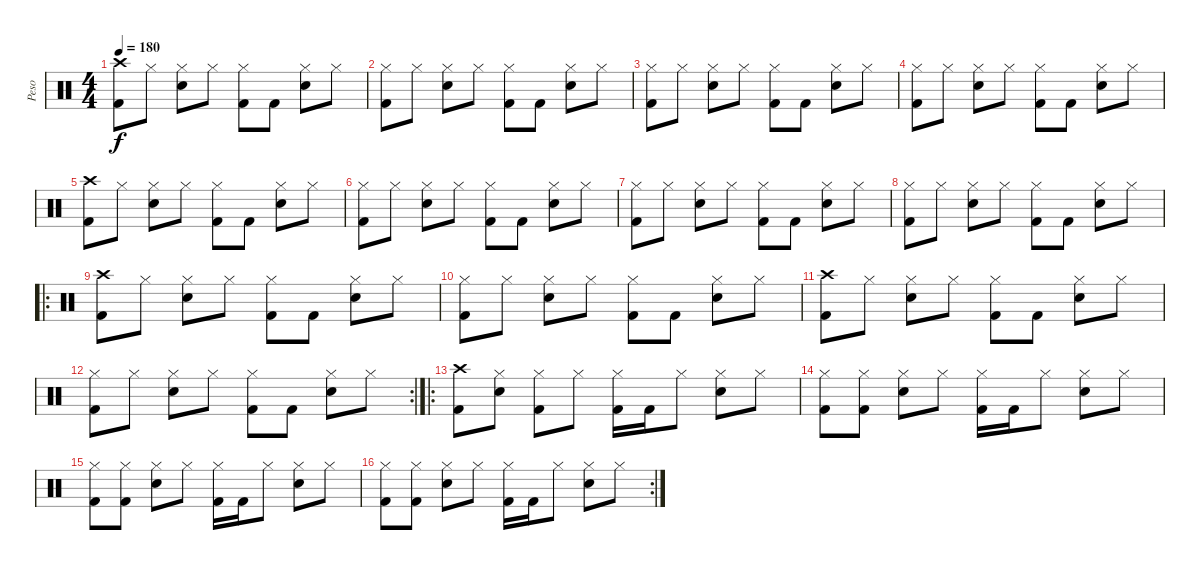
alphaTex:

\track ("Peso" "Peso") {instrument percussion}
\staff {score}
\articulation defaults
\ts (4 4)
\tempo 180
\clef neutral
\ks c
("Crash high (hit)" "Kick (hit) 2").8{dy f} "Hi-Hat (closed)"{x}.8 ("Hi-Hat (closed)" "Snare (hit) 2").8 "Hi-Hat (closed)"{x}.8 ("Hi-Hat (closed)" "Kick (hit) 2").8 "Kick (hit) 2".8 ("Hi-Hat (closed)"{x} "Snare (hit) 2").8 "Hi-Hat (closed)".8 |
("Hi-Hat (closed)"{x} "Kick (hit) 2").8 "Hi-Hat (closed)".8 ("Hi-Hat (closed)"{x} "Snare (hit) 2").8 "Hi-Hat (closed)".8 ("Hi-Hat (closed)"{x} "Kick (hit) 2").8 "Kick (hit) 2".8 ("Hi-Hat (closed)"{x} "Snare (hit) 2").8 "Hi-Hat (closed)".8 |
("Hi-Hat (closed)" "Kick (hit) 2").8 "Hi-Hat (closed)"{x}.8 ("Hi-Hat (closed)" "Snare (hit) 2").8 "Hi-Hat (closed)"{x}.8 ("Hi-Hat (closed)" "Kick (hit) 2").8 "Kick (hit) 2".8 ("Hi-Hat (closed)"{x} "Snare (hit) 2").8 "Hi-Hat (closed)".8 |
("Hi-Hat (closed)"{x} "Kick (hit) 2").8 "Hi-Hat (closed)".8 ("Hi-Hat (closed)"{x} "Snare (hit) 2").8 "Hi-Hat (closed)".8 ("Hi-Hat (closed)"{x} "Kick (hit) 2").8 "Kick (hit) 2".8 ("Hi-Hat (closed)"{x} "Snare (hit) 2").8 "Hi-Hat (closed)".8 |
("Crash high (hit)" "Kick (hit) 2").8 "Hi-Hat (closed)"{x}.8 ("Hi-Hat (closed)" "Snare (hit) 2").8 "Hi-Hat (closed)"{x}.8 ("Hi-Hat (closed)" "Kick (hit) 2").8 "Kick (hit) 2".8 ("Hi-Hat (closed)"{x} "Snare (hit) 2").8 "Hi-Hat (closed)".8 |
("Hi-Hat (closed)"{x} "Kick (hit) 2").8 "Hi-Hat (closed)".8 ("Hi-Hat (closed)"{x} "Snare (hit) 2").8 "Hi-Hat (closed)".8 ("Hi-Hat (closed)"{x} "Kick (hit) 2").8 "Kick (hit) 2".8 ("Hi-Hat (closed)"{x} "Snare (hit) 2").8 "Hi-Hat (closed)".8 |
("Hi-Hat (closed)" "Kick (hit) 2").8 "Hi-Hat (closed)"{x}.8 ("Hi-Hat (closed)" "Snare (hit) 2").8 "Hi-Hat (closed)"{x}.8 ("Hi-Hat (closed)" "Kick (hit) 2").8 "Kick (hit) 2".8 ("Hi-Hat (closed)"{x} "Snare (hit) 2").8 "Hi-Hat (closed)".8 |
("Hi-Hat (closed)"{x} "Kick (hit) 2").8 "Hi-Hat (closed)".8 ("Hi-Hat (closed)"{x} "Snare (hit) 2").8 "Hi-Hat (closed)".8 ("Hi-Hat (closed)"{x} "Kick (hit) 2").8 "Kick (hit) 2".8 ("Hi-Hat (closed)"{x} "Snare (hit) 2").8 "Hi-Hat (closed)".8 |
\ro
("Crash high (hit)" "Kick (hit) 2").8 "Hi-Hat (closed)"{x}.8 ("Hi-Hat (closed)" "Snare (hit) 2").8 "Hi-Hat (closed)"{x}.8 ("Hi-Hat (closed)" "Kick (hit) 2").8 "Kick (hit) 2".8 ("Hi-Hat (closed)"{x} "Snare (hit) 2").8 "Hi-Hat (closed)".8 |
("Hi-Hat (closed)"{x} "Kick (hit) 2").8 "Hi-Hat (closed)".8 ("Hi-Hat (closed)"{x} "Snare (hit) 2").8 "Hi-Hat (closed)".8 ("Hi-Hat (closed)"{x} "Kick (hit) 2").8 "Kick (hit) 2".8 ("Hi-Hat (closed)"{x} "Snare (hit) 2").8 "Hi-Hat (closed)".8 |
("Crash high (hit)" "Kick (hit) 2").8 "Hi-Hat (closed)"{x}.8 ("Hi-Hat (closed)" "Snare (hit) 2").8 "Hi-Hat (closed)"{x}.8 ("Hi-Hat (closed)" "Kick (hit) 2").8 "Kick (hit) 2".8 ("Hi-Hat (closed)"{x} "Snare (hit) 2").8 "Hi-Hat (closed)".8 |
\rc 2
("Hi-Hat (closed)"{x} "Kick (hit) 2").8 "Hi-Hat (closed)".8 ("Hi-Hat (closed)"{x} "Snare (hit) 2").8 "Hi-Hat (closed)".8 ("Hi-Hat (closed)"{x} "Kick (hit) 2").8 "Kick (hit) 2".8 ("Hi-Hat (closed)"{x} "Snare (hit) 2").8 "Hi-Hat (closed)".8 |
\ro
("Crash high (hit)" "Kick (hit) 2").8 ("Hi-Hat (closed)" "Snare (hit) 2").8 ("Hi-Hat (closed)" "Kick (hit) 2").8 "Hi-Hat (closed)".8 ("Hi-Hat (closed)" "Kick (hit) 2").16 "Kick (hit) 2".16 "Hi-Hat (closed)".8 ("Hi-Hat (closed)" "Snare (hit) 2").8 "Hi-Hat (closed)".8 |
("Hi-Hat (closed)" "Kick (hit) 2").8 ("Hi-Hat (closed)" "Kick (hit) 2").8 ("Hi-Hat (closed)" "Snare (hit) 2").8 "Hi-Hat (closed)".8 ("Hi-Hat (closed)" "Kick (hit) 2").16 "Kick (hit) 2".16 "Hi-Hat (closed)".8 ("Hi-Hat (closed)" "Snare (hit) 2").8 "Hi-Hat (closed)".8 |
("Hi-Hat (closed)" "Kick (hit) 2").8 ("Hi-Hat (closed)" "Kick (hit) 2").8 ("Hi-Hat (closed)" "Snare (hit) 2").8 "Hi-Hat (closed)".8 ("Hi-Hat (closed)" "Kick (hit) 2").16 "Kick (hit) 2".16 "Hi-Hat (closed)".8 ("Hi-Hat (closed)" "Snare (hit) 2").8 "Hi-Hat (closed)".8 |
\rc 2
("Hi-Hat (closed)" "Kick (hit) 2").8 ("Hi-Hat (closed)" "Kick (hit) 2").8 ("Hi-Hat (closed)" "Snare (hit) 2").8 "Hi-Hat (closed)".8 ("Hi-Hat (closed)" "Kick (hit) 2").16 "Kick (hit) 2".16 "Hi-Hat (closed)".8 ("Hi-Hat (closed)" "Snare (hit) 2").8 "Hi-Hat (closed)".8
